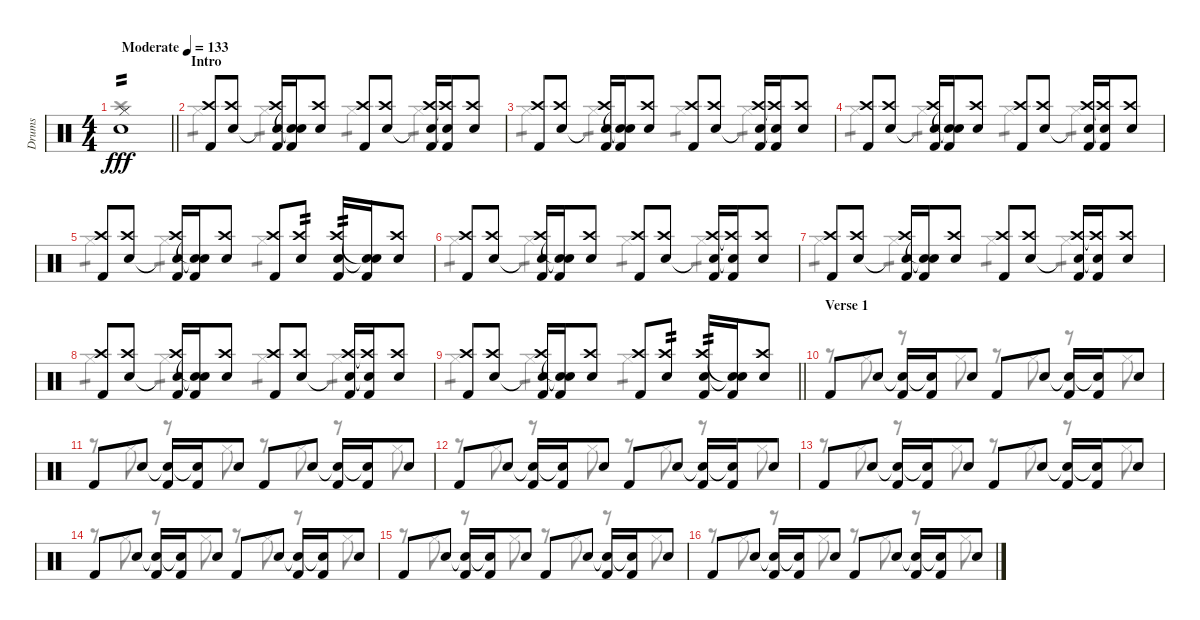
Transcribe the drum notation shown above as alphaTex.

\track ("Drums" "Drums") {instrument percussion}
\staff
\articulation defaults
\voice
\ts (4 4)
\tempo (133 "Moderate")
\clef neutral
\barLineRight lightlight
\ks c
("Hi-Hat (closed)" "Electric Snare (hit)").1{tp 2 dy fff} |
\section ("" "Intro")
("Crash high (hit)" "Kick (hit) 2").8 ("Crash high (hit)" "Electric Snare (hit)").8 ("Crash high (hit)" "Electric Snare (hit)"{t} "Kick (hit) 2").16 ("Snare (hit)"{t} "Electric Snare (hit)"{t} "Kick (hit) 2").16 ("Crash high (hit)" "Electric Snare (hit)").8 ("Crash high (hit)" "Kick (hit) 2").8 ("Crash high (hit)" "Electric Snare (hit)").8 ("Crash high (hit)" "Electric Snare (hit)"{t} "Kick (hit) 2").16 ("Crash high (hit)"{t} "Electric Snare (hit)"{t} "Kick (hit) 2").16 ("Crash high (hit)" "Electric Snare (hit)").8 |
("Crash high (hit)" "Kick (hit) 2").8 ("Crash high (hit)" "Electric Snare (hit)").8 ("Crash high (hit)" "Electric Snare (hit)"{t} "Kick (hit) 2").16 ("Snare (hit)"{t} "Electric Snare (hit)"{t} "Kick (hit) 2").16 ("Crash high (hit)" "Electric Snare (hit)").8 ("Crash high (hit)" "Kick (hit) 2").8 ("Crash high (hit)" "Electric Snare (hit)").8 ("Crash high (hit)" "Electric Snare (hit)"{t} "Kick (hit) 2").16 ("Crash high (hit)"{t} "Electric Snare (hit)"{t} "Kick (hit) 2").16 ("Crash high (hit)" "Electric Snare (hit)").8 |
("Crash high (hit)" "Kick (hit) 2").8 ("Crash high (hit)" "Electric Snare (hit)").8 ("Crash high (hit)" "Electric Snare (hit)"{t} "Kick (hit) 2").16 ("Snare (hit)"{t} "Electric Snare (hit)"{t} "Kick (hit) 2").16 ("Crash high (hit)" "Electric Snare (hit)").8 ("Crash high (hit)" "Kick (hit) 2").8 ("Crash high (hit)" "Electric Snare (hit)").8 ("Crash high (hit)" "Electric Snare (hit)"{t} "Kick (hit) 2").16 ("Crash high (hit)"{t} "Electric Snare (hit)"{t} "Kick (hit) 2").16 ("Crash high (hit)" "Electric Snare (hit)").8 |
("Crash high (hit)" "Kick (hit) 2").8 ("Crash high (hit)" "Electric Snare (hit)").8 ("Crash high (hit)" "Electric Snare (hit)"{t} "Kick (hit) 2").16 ("Snare (hit)"{t} "Electric Snare (hit)"{t} "Kick (hit) 2").16 ("Crash high (hit)" "Electric Snare (hit)").8 ("Crash high (hit)" "Kick (hit) 2").8 ("Crash high (hit)" "Electric Snare (hit)").8{tp 2} ("Crash high (hit)" "Electric Snare (hit)" "Kick (hit) 2").16{tp 2} ("Snare (hit)"{t} "Electric Snare (hit)"{t} "Kick (hit) 2").16 ("Crash high (hit)" "Electric Snare (hit)").8 |
("Crash high (hit)" "Kick (hit) 2").8 ("Crash high (hit)" "Electric Snare (hit)").8 ("Crash high (hit)" "Electric Snare (hit)"{t} "Kick (hit) 2").16 ("Snare (hit)"{t} "Electric Snare (hit)"{t} "Kick (hit) 2").16 ("Crash high (hit)" "Electric Snare (hit)").8 ("Crash high (hit)" "Kick (hit) 2").8 ("Crash high (hit)" "Electric Snare (hit)").8 ("Crash high (hit)" "Electric Snare (hit)"{t} "Kick (hit) 2").16 ("Crash high (hit)"{t} "Electric Snare (hit)"{t} "Kick (hit) 2").16 ("Crash high (hit)" "Electric Snare (hit)").8 |
("Crash high (hit)" "Kick (hit) 2").8 ("Crash high (hit)" "Electric Snare (hit)").8 ("Crash high (hit)" "Electric Snare (hit)"{t} "Kick (hit) 2").16 ("Snare (hit)"{t} "Electric Snare (hit)"{t} "Kick (hit) 2").16 ("Crash high (hit)" "Electric Snare (hit)").8 ("Crash high (hit)" "Kick (hit) 2").8 ("Crash high (hit)" "Electric Snare (hit)").8 ("Crash high (hit)" "Electric Snare (hit)"{t} "Kick (hit) 2").16 ("Crash high (hit)"{t} "Electric Snare (hit)"{t} "Kick (hit) 2").16 ("Crash high (hit)" "Electric Snare (hit)").8 |
("Crash high (hit)" "Kick (hit) 2").8 ("Crash high (hit)" "Electric Snare (hit)").8 ("Crash high (hit)" "Electric Snare (hit)"{t} "Kick (hit) 2").16 ("Snare (hit)"{t} "Electric Snare (hit)"{t} "Kick (hit) 2").16 ("Crash high (hit)" "Electric Snare (hit)").8 ("Crash high (hit)" "Kick (hit) 2").8 ("Crash high (hit)" "Electric Snare (hit)").8 ("Crash high (hit)" "Electric Snare (hit)"{t} "Kick (hit) 2").16 ("Crash high (hit)"{t} "Electric Snare (hit)"{t} "Kick (hit) 2").16 ("Crash high (hit)" "Electric Snare (hit)").8 |
\barLineRight lightlight
("Crash high (hit)" "Kick (hit) 2").8 ("Crash high (hit)" "Electric Snare (hit)").8 ("Crash high (hit)" "Electric Snare (hit)"{t} "Kick (hit) 2").16 ("Snare (hit)"{t} "Electric Snare (hit)"{t} "Kick (hit) 2").16 ("Crash high (hit)" "Electric Snare (hit)").8 ("Crash high (hit)" "Kick (hit) 2").8 ("Crash high (hit)" "Electric Snare (hit)").8{tp 2} ("Crash high (hit)" "Electric Snare (hit)" "Kick (hit) 2").16{tp 2} ("Snare (hit)"{t} "Electric Snare (hit)"{t} "Kick (hit) 2").16 ("Crash high (hit)" "Electric Snare (hit)").8 |
\section ("" "Verse 1")
"Kick (hit) 2".8 "Electric Snare (hit)".8 ("Electric Snare (hit)"{t} "Kick (hit) 2").16 ("Electric Snare (hit)"{t} "Kick (hit) 2").16 "Electric Snare (hit)".8 "Kick (hit) 2".8 "Electric Snare (hit)".8 ("Electric Snare (hit)"{t} "Kick (hit) 2").16 ("Electric Snare (hit)"{t} "Kick (hit) 2").16 "Electric Snare (hit)".8 |
"Kick (hit) 2".8 "Electric Snare (hit)".8 ("Electric Snare (hit)"{t} "Kick (hit) 2").16 ("Electric Snare (hit)"{t} "Kick (hit) 2").16 "Electric Snare (hit)".8 "Kick (hit) 2".8 "Electric Snare (hit)".8 ("Electric Snare (hit)"{t} "Kick (hit) 2").16 ("Electric Snare (hit)"{t} "Kick (hit) 2").16 "Electric Snare (hit)".8 |
"Kick (hit) 2".8 "Electric Snare (hit)".8 ("Electric Snare (hit)"{t} "Kick (hit) 2").16 ("Electric Snare (hit)"{t} "Kick (hit) 2").16 "Electric Snare (hit)".8 "Kick (hit) 2".8 "Electric Snare (hit)".8 ("Electric Snare (hit)"{t} "Kick (hit) 2").16 ("Electric Snare (hit)"{t} "Kick (hit) 2").16 "Electric Snare (hit)".8 |
"Kick (hit) 2".8 "Electric Snare (hit)".8 ("Electric Snare (hit)"{t} "Kick (hit) 2").16 ("Electric Snare (hit)"{t} "Kick (hit) 2").16 "Electric Snare (hit)".8 "Kick (hit) 2".8 "Electric Snare (hit)".8 ("Electric Snare (hit)"{t} "Kick (hit) 2").16 ("Electric Snare (hit)"{t} "Kick (hit) 2").16 "Electric Snare (hit)".8 |
"Kick (hit) 2".8 "Electric Snare (hit)".8 ("Electric Snare (hit)"{t} "Kick (hit) 2").16 ("Electric Snare (hit)"{t} "Kick (hit) 2").16 "Electric Snare (hit)".8 "Kick (hit) 2".8 "Electric Snare (hit)".8 ("Electric Snare (hit)"{t} "Kick (hit) 2").16 ("Electric Snare (hit)"{t} "Kick (hit) 2").16 "Electric Snare (hit)".8 |
"Kick (hit) 2".8 "Electric Snare (hit)".8 ("Electric Snare (hit)"{t} "Kick (hit) 2").16 ("Electric Snare (hit)"{t} "Kick (hit) 2").16 "Electric Snare (hit)".8 "Kick (hit) 2".8 "Electric Snare (hit)".8 ("Electric Snare (hit)"{t} "Kick (hit) 2").16 ("Electric Snare (hit)"{t} "Kick (hit) 2").16 "Electric Snare (hit)".8 |
"Kick (hit) 2".8 "Electric Snare (hit)".8 ("Electric Snare (hit)"{t} "Kick (hit) 2").16 ("Electric Snare (hit)"{t} "Kick (hit) 2").16 "Electric Snare (hit)".8 "Kick (hit) 2".8 "Electric Snare (hit)".8 ("Electric Snare (hit)"{t} "Kick (hit) 2").16 ("Electric Snare (hit)"{t} "Kick (hit) 2").16 "Electric Snare (hit)".8
\voice
\clef neutral
\ottava regular
\simile none
\barLineRight lightlight
\ks c "Crash high (hit)".1{dy fff}
|
"Hi-Hat (closed)".4{tp 1} "Hi-Hat (closed)".4{tp 1} "Hi-Hat (closed)".4{tp 1} "Hi-Hat (closed)".4{tp 1} |
"Hi-Hat (closed)".4{tp 1} "Hi-Hat (closed)".4{tp 1} "Hi-Hat (closed)".4{tp 1} "Hi-Hat (closed)".4{tp 1} |
"Hi-Hat (closed)".4{tp 1} "Hi-Hat (closed)".4{tp 1} "Hi-Hat (closed)".4{tp 1} "Hi-Hat (closed)".4{tp 1} |
"Hi-Hat (closed)".4{tp 1} "Hi-Hat (closed)".4{tp 1} "Hi-Hat (closed)".4{tp 1} |
"Hi-Hat (closed)".4{tp 1} "Hi-Hat (closed)".4{tp 1} "Hi-Hat (closed)".4{tp 1} "Hi-Hat (closed)".4{tp 1} |
"Hi-Hat (closed)".4{tp 1} "Hi-Hat (closed)".4{tp 1} "Hi-Hat (closed)".4{tp 1} "Hi-Hat (closed)".4{tp 1} |
"Hi-Hat (closed)".4{tp 1} "Hi-Hat (closed)".4{tp 1} "Hi-Hat (closed)".4{tp 1} "Hi-Hat (closed)".4{tp 1} |
\barLineRight lightlight "Hi-Hat (closed)".4{tp 1} "Hi-Hat (closed)".4{tp 1} "Hi-Hat (closed)".4{tp 1}
|
r.8 "Hi-Hat (closed)".8 r.8 "Hi-Hat (closed)".8 r.8 "Hi-Hat (closed)".8 r.8 "Hi-Hat (closed)".8 |
r.8 "Hi-Hat (closed)".8 r.8 "Hi-Hat (closed)".8 r.8 "Hi-Hat (closed)".8 r.8 "Hi-Hat (closed)".8 |
r.8 "Hi-Hat (closed)".8 r.8 "Hi-Hat (closed)".8 r.8 "Hi-Hat (closed)".8 r.8 "Hi-Hat (closed)".8 |
r.8 "Hi-Hat (closed)".8 r.8 "Hi-Hat (closed)".8 r.8 "Hi-Hat (closed)".8 r.8 "Hi-Hat (closed)".8 |
r.8 "Hi-Hat (closed)".8 r.8 "Hi-Hat (closed)".8 r.8 "Hi-Hat (closed)".8 r.8 "Hi-Hat (closed)".8 |
r.8 "Hi-Hat (closed)".8 r.8 "Hi-Hat (closed)".8 r.8 "Hi-Hat (closed)".8 r.8 "Hi-Hat (closed)".8 |
r.8 "Hi-Hat (closed)".8 r.8 "Hi-Hat (closed)".8 r.8 "Hi-Hat (closed)".8 r.8 "Hi-Hat (closed)".8
